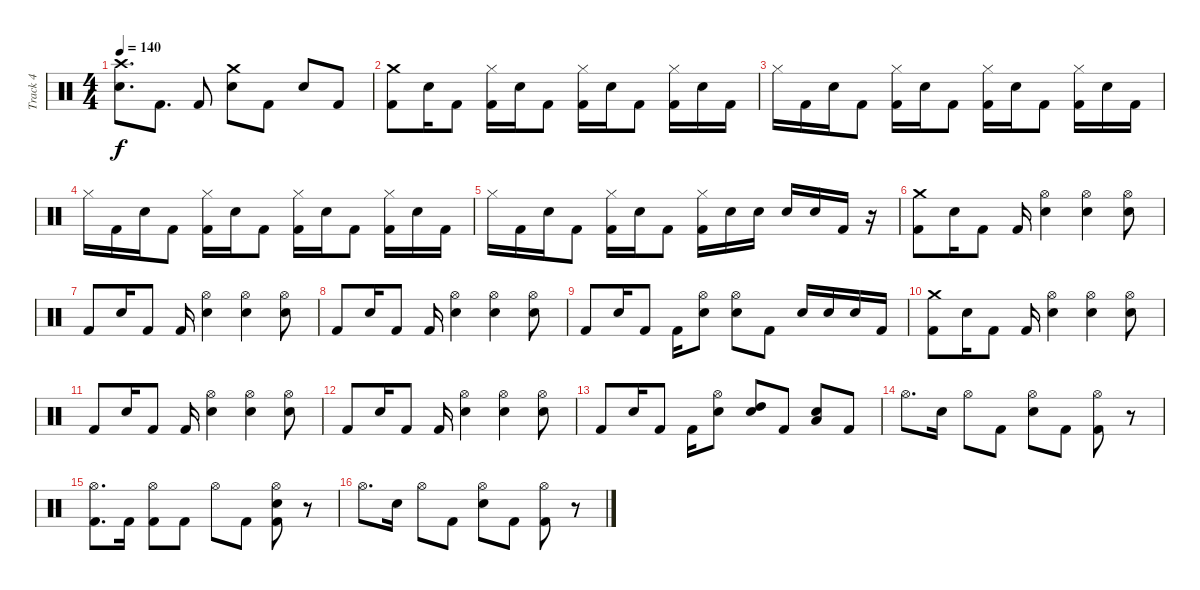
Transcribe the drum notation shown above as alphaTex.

\track ("Track 4" "Track 4") {instrument percussion}
\staff {score}
\articulation defaults
\ts (4 4)
\tempo 140
\clef neutral
\ks c
("Crash high (hit)" "Snare (hit) 2").8{d dy f} "Kick (hit) 2".8{d} "Kick (hit) 2".8 ("Crash medium (hit)" "Snare (hit) 2").8 "Kick (hit) 2".8 "Snare (hit) 2".8 "Kick (hit) 2".8 |
("Crash medium (hit)" "Kick (hit) 2").8 "Snare (hit) 2".16 "Kick (hit) 2".8 ("Hi-Hat (closed)" "Kick (hit) 2").16 "Snare (hit) 2".16 "Kick (hit) 2".8 ("Hi-Hat (closed)" "Kick (hit) 2").16 "Snare (hit) 2".16 "Kick (hit) 2".8 ("Hi-Hat (closed)" "Kick (hit) 2").16 "Snare (hit) 2".16 "Kick (hit) 2".16 |
"Hi-Hat (closed)".16 "Kick (hit) 2".16 "Snare (hit) 2".16 "Kick (hit) 2".8 ("Hi-Hat (closed)" "Kick (hit) 2").16 "Snare (hit) 2".16 "Kick (hit) 2".8 ("Hi-Hat (closed)" "Kick (hit) 2").16 "Snare (hit) 2".16 "Kick (hit) 2".8 ("Hi-Hat (closed)" "Kick (hit) 2").16 "Snare (hit) 2".16 "Kick (hit) 2".16 |
"Hi-Hat (closed)".16 "Kick (hit) 2".16 "Snare (hit) 2".16 "Kick (hit) 2".8 ("Hi-Hat (closed)" "Kick (hit) 2").16 "Snare (hit) 2".16 "Kick (hit) 2".8 ("Hi-Hat (closed)" "Kick (hit) 2").16 "Snare (hit) 2".16 "Kick (hit) 2".8 ("Hi-Hat (closed)" "Kick (hit) 2").16 "Snare (hit) 2".16 "Kick (hit) 2".16 |
"Hi-Hat (closed)".16 "Kick (hit) 2".16 "Snare (hit) 2".16 "Kick (hit) 2".8 ("Hi-Hat (closed)" "Kick (hit) 2").16 "Snare (hit) 2".16 "Kick (hit) 2".8 ("Hi-Hat (closed)" "Kick (hit) 2").16 "Snare (hit) 2".16 "Snare (hit) 2".16 "Snare (hit) 2".16 "Snare (hit) 2".16 "Kick (hit) 2".16 r.16 |
("Crash medium (hit)" "Kick (hit) 2").8 "Snare (hit) 2".16 "Kick (hit) 2".8 "Kick (hit) 2".16 ("Hi-Hat (open)" "Snare (hit) 2").4 ("Hi-Hat (open)" "Snare (hit) 2").4 ("Hi-Hat (open)" "Snare (hit) 2").8 |
"Kick (hit) 2".8 "Snare (hit) 2".16 "Kick (hit) 2".8 "Kick (hit) 2".16 ("Hi-Hat (open)" "Snare (hit) 2").4 ("Hi-Hat (open)" "Snare (hit) 2").4 ("Hi-Hat (open)" "Snare (hit) 2").8 |
"Kick (hit) 2".8 "Snare (hit) 2".16 "Kick (hit) 2".8 "Kick (hit) 2".16 ("Hi-Hat (open)" "Snare (hit) 2").4 ("Hi-Hat (open)" "Snare (hit) 2").4 ("Hi-Hat (open)" "Snare (hit) 2").8 |
"Kick (hit) 2".8 "Snare (hit) 2".16 "Kick (hit) 2".8 "Kick (hit) 2".16 ("Hi-Hat (open)" "Snare (hit) 2").8 ("Hi-Hat (open)" "Snare (hit) 2").8 "Kick (hit) 2".8 "Snare (hit) 2".16 "Snare (hit) 2".16 "Snare (hit) 2".16 "Kick (hit) 2".16 |
("Crash medium (hit)" "Kick (hit) 2").8 "Snare (hit) 2".16 "Kick (hit) 2".8 "Kick (hit) 2".16 ("Hi-Hat (open)" "Snare (hit) 2").4 ("Hi-Hat (open)" "Snare (hit) 2").4 ("Hi-Hat (open)" "Snare (hit) 2").8 |
"Kick (hit) 2".8 "Snare (hit) 2".16 "Kick (hit) 2".8 "Kick (hit) 2".16 ("Hi-Hat (open)" "Snare (hit) 2").4 ("Hi-Hat (open)" "Snare (hit) 2").4 ("Hi-Hat (open)" "Snare (hit) 2").8 |
"Kick (hit) 2".8 "Snare (hit) 2".16 "Kick (hit) 2".8 "Kick (hit) 2".16 ("Hi-Hat (open)" "Snare (hit) 2").4 ("Hi-Hat (open)" "Snare (hit) 2").4 ("Hi-Hat (open)" "Snare (hit) 2").8 |
"Kick (hit) 2".8 "Snare (hit) 2".16 "Kick (hit) 2".8 "Kick (hit) 2".16 ("Hi-Hat (open)" "Snare (hit) 2").8 ("High Tom (hit)" "Snare (hit) 2").8 "Kick (hit) 2".8 ("Low Tom (hit)" "Snare (hit) 2").8 "Kick (hit) 2".8 |
"Hi-Hat (open)".8{d} "Snare (hit) 2".16 "Hi-Hat (open)".8 "Kick (hit) 2".8 ("Hi-Hat (open)" "Snare (hit) 2").8 "Kick (hit) 2".8 ("Hi-Hat (open)" "Kick (hit) 2").8 r.8 |
("Hi-Hat (open)" "Kick (hit) 2").8{d} "Kick (hit) 2".16 ("Hi-Hat (open)" "Kick (hit) 2").8 "Kick (hit) 2".8 "Hi-Hat (open)".8 "Kick (hit) 2".8 ("Hi-Hat (open)" "Snare (hit) 2" "Kick (hit) 2").8 r.8 |
"Hi-Hat (open)".8{d} "Snare (hit) 2".16 "Hi-Hat (open)".8 "Kick (hit) 2".8 ("Hi-Hat (open)" "Snare (hit) 2").8 "Kick (hit) 2".8 ("Hi-Hat (open)" "Kick (hit) 2").8 r.8
